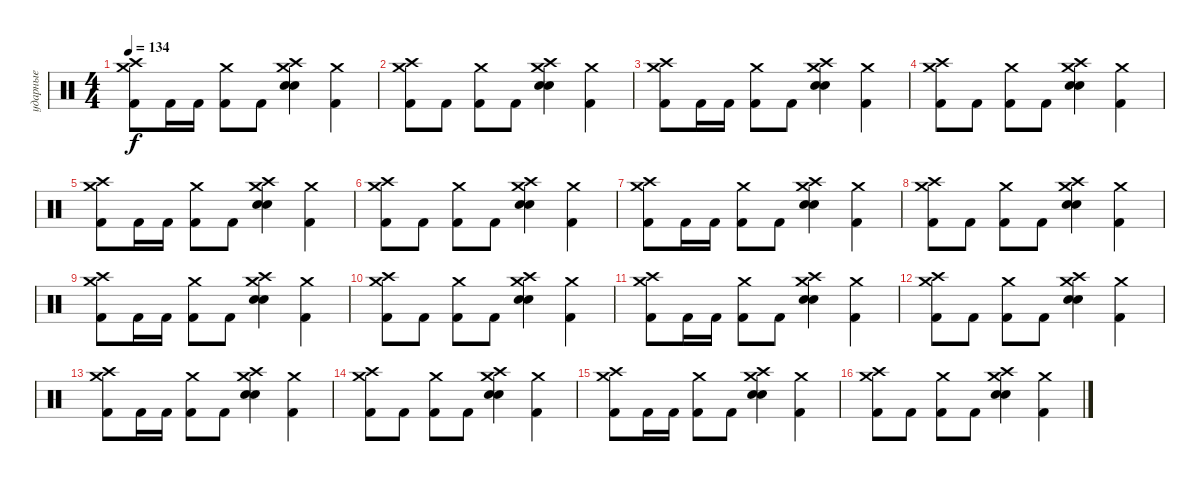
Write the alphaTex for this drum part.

\track ("ударные" "ударные") {instrument percussion}
\staff {score}
\articulation defaults
\ts (4 4)
\tempo 134
\clef neutral
\ks c
("Crash medium (hit)" "Crash high (hit)" "Kick (hit) 2").8{dy f} "Kick (hit) 2".16 "Kick (hit) 2".16 ("Crash medium (hit)" "Kick (hit) 2").8 "Kick (hit) 2".8 ("Crash medium (hit)" "Crash high (hit)" "Snare (hit) 2" "Electric Snare (hit)").4 ("Crash medium (hit)" "Kick (hit) 2").4 |
("Crash medium (hit)" "Crash high (hit)" "Kick (hit) 2").8 "Kick (hit) 2".8 ("Crash medium (hit)" "Kick (hit) 2").8 "Kick (hit) 2".8 ("Crash medium (hit)" "Crash high (hit)" "Snare (hit) 2" "Electric Snare (hit)").4 ("Crash medium (hit)" "Kick (hit) 2").4 |
("Crash medium (hit)" "Crash high (hit)" "Kick (hit) 2").8 "Kick (hit) 2".16 "Kick (hit) 2".16 ("Crash medium (hit)" "Kick (hit) 2").8 "Kick (hit) 2".8 ("Crash medium (hit)" "Crash high (hit)" "Snare (hit) 2" "Electric Snare (hit)").4 ("Crash medium (hit)" "Kick (hit) 2").4 |
("Crash medium (hit)" "Crash high (hit)" "Kick (hit) 2").8 "Kick (hit) 2".8 ("Crash medium (hit)" "Kick (hit) 2").8 "Kick (hit) 2".8 ("Crash medium (hit)" "Crash high (hit)" "Snare (hit) 2" "Electric Snare (hit)").4 ("Crash medium (hit)" "Kick (hit) 2").4 |
("Crash medium (hit)" "Crash high (hit)" "Kick (hit) 2").8 "Kick (hit) 2".16 "Kick (hit) 2".16 ("Crash medium (hit)" "Kick (hit) 2").8 "Kick (hit) 2".8 ("Crash medium (hit)" "Crash high (hit)" "Snare (hit) 2" "Electric Snare (hit)").4 ("Crash medium (hit)" "Kick (hit) 2").4 |
("Crash medium (hit)" "Crash high (hit)" "Kick (hit) 2").8 "Kick (hit) 2".8 ("Crash medium (hit)" "Kick (hit) 2").8 "Kick (hit) 2".8 ("Crash medium (hit)" "Crash high (hit)" "Snare (hit) 2" "Electric Snare (hit)").4 ("Crash medium (hit)" "Kick (hit) 2").4 |
("Crash medium (hit)" "Crash high (hit)" "Kick (hit) 2").8 "Kick (hit) 2".16 "Kick (hit) 2".16 ("Crash medium (hit)" "Kick (hit) 2").8 "Kick (hit) 2".8 ("Crash medium (hit)" "Crash high (hit)" "Snare (hit) 2" "Electric Snare (hit)").4 ("Crash medium (hit)" "Kick (hit) 2").4 |
("Crash medium (hit)" "Crash high (hit)" "Kick (hit) 2").8 "Kick (hit) 2".8 ("Crash medium (hit)" "Kick (hit) 2").8 "Kick (hit) 2".8 ("Crash medium (hit)" "Crash high (hit)" "Snare (hit) 2" "Electric Snare (hit)").4 ("Crash medium (hit)" "Kick (hit) 2").4 |
("Crash medium (hit)" "Crash high (hit)" "Kick (hit) 2").8 "Kick (hit) 2".16 "Kick (hit) 2".16 ("Crash medium (hit)" "Kick (hit) 2").8 "Kick (hit) 2".8 ("Crash medium (hit)" "Crash high (hit)" "Snare (hit) 2" "Electric Snare (hit)").4 ("Crash medium (hit)" "Kick (hit) 2").4 |
("Crash medium (hit)" "Crash high (hit)" "Kick (hit) 2").8 "Kick (hit) 2".8 ("Crash medium (hit)" "Kick (hit) 2").8 "Kick (hit) 2".8 ("Crash medium (hit)" "Crash high (hit)" "Snare (hit) 2" "Electric Snare (hit)").4 ("Crash medium (hit)" "Kick (hit) 2").4 |
("Crash medium (hit)" "Crash high (hit)" "Kick (hit) 2").8 "Kick (hit) 2".16 "Kick (hit) 2".16 ("Crash medium (hit)" "Kick (hit) 2").8 "Kick (hit) 2".8 ("Crash medium (hit)" "Crash high (hit)" "Snare (hit) 2" "Electric Snare (hit)").4 ("Crash medium (hit)" "Kick (hit) 2").4 |
("Crash medium (hit)" "Crash high (hit)" "Kick (hit) 2").8 "Kick (hit) 2".8 ("Crash medium (hit)" "Kick (hit) 2").8 "Kick (hit) 2".8 ("Crash medium (hit)" "Crash high (hit)" "Snare (hit) 2" "Electric Snare (hit)").4 ("Crash medium (hit)" "Kick (hit) 2").4 |
("Crash medium (hit)" "Crash high (hit)" "Kick (hit) 2").8 "Kick (hit) 2".16 "Kick (hit) 2".16 ("Crash medium (hit)" "Kick (hit) 2").8 "Kick (hit) 2".8 ("Crash medium (hit)" "Crash high (hit)" "Snare (hit) 2" "Electric Snare (hit)").4 ("Crash medium (hit)" "Kick (hit) 2").4 |
("Crash medium (hit)" "Crash high (hit)" "Kick (hit) 2").8 "Kick (hit) 2".8 ("Crash medium (hit)" "Kick (hit) 2").8 "Kick (hit) 2".8 ("Crash medium (hit)" "Crash high (hit)" "Snare (hit) 2" "Electric Snare (hit)").4 ("Crash medium (hit)" "Kick (hit) 2").4 |
("Crash medium (hit)" "Crash high (hit)" "Kick (hit) 2").8 "Kick (hit) 2".16 "Kick (hit) 2".16 ("Crash medium (hit)" "Kick (hit) 2").8 "Kick (hit) 2".8 ("Crash medium (hit)" "Crash high (hit)" "Snare (hit) 2" "Electric Snare (hit)").4 ("Crash medium (hit)" "Kick (hit) 2").4 |
("Crash medium (hit)" "Crash high (hit)" "Kick (hit) 2").8 "Kick (hit) 2".8 ("Crash medium (hit)" "Kick (hit) 2").8 "Kick (hit) 2".8 ("Crash medium (hit)" "Crash high (hit)" "Snare (hit) 2" "Electric Snare (hit)").4 ("Crash medium (hit)" "Kick (hit) 2").4
